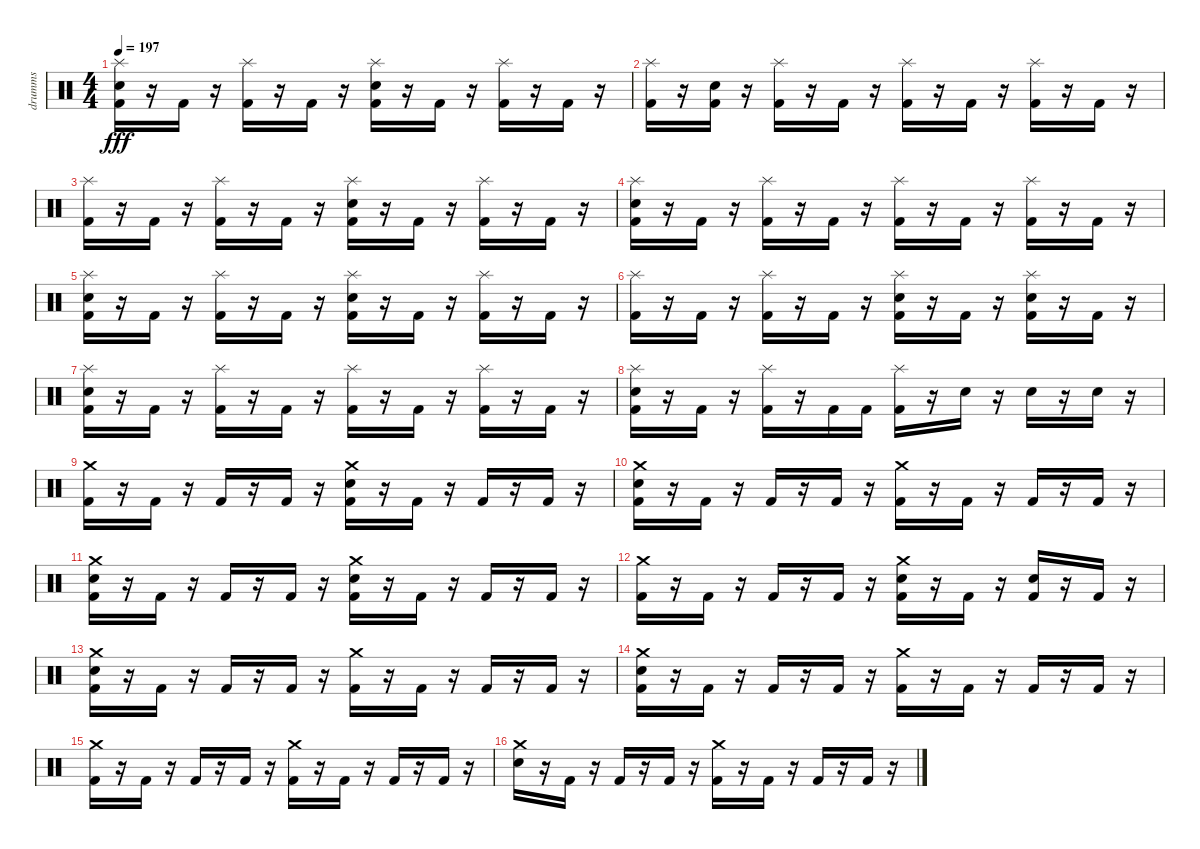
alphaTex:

\track ("drumms" "drumms") {instrument percussion}
\staff {score}
\articulation defaults
\ts (4 4)
\tempo 197
\clef neutral
\ks c
("Kick (hit) 2" "Snare (hit) 2" "Splash (hit)").16{dy fff} r.16 "Kick (hit) 2".16 r.16 ("Kick (hit) 2" "Splash (hit)").16 r.16 "Kick (hit) 2".16 r.16 ("Kick (hit) 2" "Snare (hit) 2" "Splash (hit)").16 r.16 "Kick (hit) 2".16 r.16 ("Kick (hit) 2" "Splash (hit)").16 r.16 "Kick (hit) 2".16 r.16 |
("Kick (hit) 2" "Splash (hit)").16 r.16 ("Kick (hit) 2" "Snare (hit) 2").16 r.16 ("Kick (hit) 2" "Splash (hit)").16 r.16 "Kick (hit) 2".16 r.16 ("Kick (hit) 2" "Splash (hit)").16 r.16 "Kick (hit) 2".16 r.16 ("Kick (hit) 2" "Splash (hit)").16 r.16 "Kick (hit) 2".16 r.16 |
("Kick (hit) 2" "Splash (hit)").16 r.16 "Kick (hit) 2".16 r.16 ("Kick (hit) 2" "Splash (hit)").16 r.16 "Kick (hit) 2".16 r.16 ("Snare (hit) 2" "Splash (hit)" "Kick (hit) 2").16 r.16 "Kick (hit) 2".16 r.16 ("Kick (hit) 2" "Splash (hit)").16 r.16 "Kick (hit) 2".16 r.16 |
("Snare (hit) 2" "Splash (hit)" "Kick (hit) 2").16 r.16 "Kick (hit) 2".16 r.16 ("Kick (hit) 2" "Splash (hit)").16 r.16 "Kick (hit) 2".16 r.16 ("Kick (hit) 2" "Splash (hit)").16 r.16 "Kick (hit) 2".16 r.16 ("Kick (hit) 2" "Splash (hit)").16 r.16 "Kick (hit) 2".16 r.16 |
("Snare (hit) 2" "Splash (hit)" "Kick (hit) 2").16 r.16 "Kick (hit) 2".16 r.16 ("Kick (hit) 2" "Splash (hit)").16 r.16 "Kick (hit) 2".16 r.16 ("Snare (hit) 2" "Splash (hit)" "Kick (hit) 2").16 r.16 "Kick (hit) 2".16 r.16 ("Kick (hit) 2" "Splash (hit)").16 r.16 "Kick (hit) 2".16 r.16 |
("Kick (hit) 2" "Splash (hit)").16 r.16 "Kick (hit) 2".16 r.16 ("Kick (hit) 2" "Splash (hit)").16 r.16 "Kick (hit) 2".16 r.16 ("Kick (hit) 2" "Snare (hit) 2" "Splash (hit)").16 r.16 "Kick (hit) 2".16 r.16 ("Kick (hit) 2" "Snare (hit) 2" "Splash (hit)").16 r.16 "Kick (hit) 2".16 r.16 |
("Kick (hit) 2" "Snare (hit) 2" "Splash (hit)").16 r.16 "Kick (hit) 2".16 r.16 ("Kick (hit) 2" "Splash (hit)").16 r.16 "Kick (hit) 2".16 r.16 ("Kick (hit) 2" "Splash (hit)").16 r.16 "Kick (hit) 2".16 r.16 ("Kick (hit) 2" "Splash (hit)").16 r.16 "Kick (hit) 2".16 r.16 |
("Kick (hit) 2" "Splash (hit)" "Snare (hit) 2").16 r.16 "Kick (hit) 2".16 r.16 ("Kick (hit) 2" "Splash (hit)").16 r.16 "Kick (hit) 2".16 "Kick (hit) 2".16 ("Kick (hit) 2" "Splash (hit)").16 r.16 "Snare (hit) 2".16 r.16 "Snare (hit) 2".16 r.16 "Snare (hit) 2".16 r.16 |
("Kick (hit) 2" "Crash medium (hit)").16 r.16 "Kick (hit) 2".16 r.16 "Kick (hit) 2".16 r.16 "Kick (hit) 2".16 r.16 ("Kick (hit) 2" "Snare (hit) 2" "Crash medium (hit)").16 r.16 "Kick (hit) 2".16 r.16 "Kick (hit) 2".16 r.16 "Kick (hit) 2".16 r.16 |
("Kick (hit) 2" "Snare (hit) 2" "Crash medium (hit)").16 r.16 "Kick (hit) 2".16 r.16 "Kick (hit) 2".16 r.16 "Kick (hit) 2".16 r.16 ("Kick (hit) 2" "Crash medium (hit)").16 r.16 "Kick (hit) 2".16 r.16 "Kick (hit) 2".16 r.16 "Kick (hit) 2".16 r.16 |
("Kick (hit) 2" "Snare (hit) 2" "Crash medium (hit)").16 r.16 "Kick (hit) 2".16 r.16 "Kick (hit) 2".16 r.16 "Kick (hit) 2".16 r.16 ("Kick (hit) 2" "Snare (hit) 2" "Crash medium (hit)").16 r.16 "Kick (hit) 2".16 r.16 "Kick (hit) 2".16 r.16 "Kick (hit) 2".16 r.16 |
("Kick (hit) 2" "Crash medium (hit)").16 r.16 "Kick (hit) 2".16 r.16 "Kick (hit) 2".16 r.16 "Kick (hit) 2".16 r.16 ("Kick (hit) 2" "Snare (hit) 2" "Crash medium (hit)").16 r.16 "Kick (hit) 2".16 r.16 ("Kick (hit) 2" "Snare (hit) 2").16 r.16 "Kick (hit) 2".16 r.16 |
("Kick (hit) 2" "Snare (hit) 2" "Crash medium (hit)").16 r.16 "Kick (hit) 2".16 r.16 "Kick (hit) 2".16 r.16 "Kick (hit) 2".16 r.16 ("Kick (hit) 2" "Crash medium (hit)").16 r.16 "Kick (hit) 2".16 r.16 "Kick (hit) 2".16 r.16 "Kick (hit) 2".16 r.16 |
("Kick (hit) 2" "Snare (hit) 2" "Crash medium (hit)").16 r.16 "Kick (hit) 2".16 r.16 "Kick (hit) 2".16 r.16 "Kick (hit) 2".16 r.16 ("Kick (hit) 2" "Crash medium (hit)").16 r.16 "Kick (hit) 2".16 r.16 "Kick (hit) 2".16 r.16 "Kick (hit) 2".16 r.16 |
("Kick (hit) 2" "Crash medium (hit)").16 r.16 "Kick (hit) 2".16 r.16 "Kick (hit) 2".16 r.16 "Kick (hit) 2".16 r.16 ("Kick (hit) 2" "Crash medium (hit)").16 r.16 "Kick (hit) 2".16 r.16 "Kick (hit) 2".16 r.16 "Kick (hit) 2".16 r.16 |
("Snare (hit) 2" "Crash medium (hit)").16 r.16 "Kick (hit) 2".16 r.16 "Kick (hit) 2".16 r.16 "Kick (hit) 2".16 r.16 ("Kick (hit) 2" "Crash medium (hit)").16 r.16 "Kick (hit) 2".16 r.16 "Kick (hit) 2".16 r.16 "Kick (hit) 2".16 r.16
